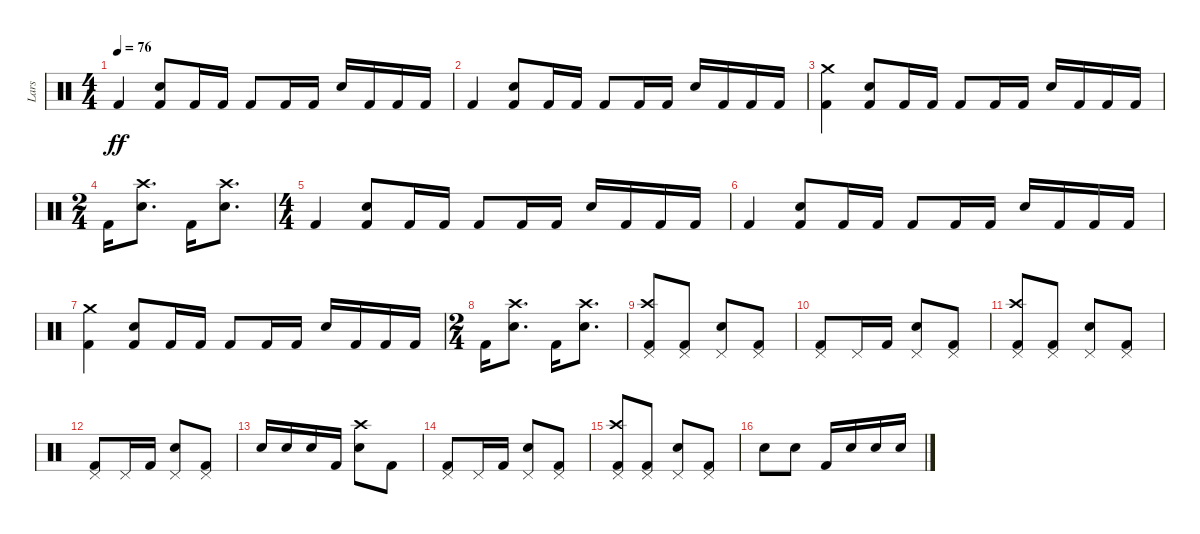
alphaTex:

\track ("Lars" "Lars") {instrument percussion}
\staff {score}
\articulation defaults
\ts (4 4)
\tempo 76
\clef neutral
\ks c "Kick (hit) 2".4{dy ff}
("Snare (hit) 2" "Kick (hit) 2").8 "Kick (hit) 2".16 "Kick (hit) 2".16 "Kick (hit) 2".8 "Kick (hit) 2".16 "Kick (hit) 2".16 "Snare (hit) 2".16 "Kick (hit) 2".16 "Kick (hit) 2".16 "Kick (hit) 2".16 |
"Kick (hit) 2".4 ("Snare (hit) 2" "Kick (hit) 2").8 "Kick (hit) 2".16 "Kick (hit) 2".16 "Kick (hit) 2".8 "Kick (hit) 2".16 "Kick (hit) 2".16 "Snare (hit) 2".16 "Kick (hit) 2".16 "Kick (hit) 2".16 "Kick (hit) 2".16 |
("Crash medium (hit)" "Kick (hit) 2").4 ("Snare (hit) 2" "Kick (hit) 2").8 "Kick (hit) 2".16 "Kick (hit) 2".16 "Kick (hit) 2".8 "Kick (hit) 2".16 "Kick (hit) 2".16 "Snare (hit) 2".16 "Kick (hit) 2".16 "Kick (hit) 2".16 "Kick (hit) 2".16 |
\ts (2 4)
"Kick (hit) 2".16 ("Crash high (hit)" "Snare (hit) 2").8{d} "Kick (hit) 2".16 ("Crash high (hit)" "Snare (hit) 2").8{d} |
\ts (4 4)
"Kick (hit) 2".4 ("Snare (hit) 2" "Kick (hit) 2").8 "Kick (hit) 2".16 "Kick (hit) 2".16 "Kick (hit) 2".8 "Kick (hit) 2".16 "Kick (hit) 2".16 "Snare (hit) 2".16 "Kick (hit) 2".16 "Kick (hit) 2".16 "Kick (hit) 2".16 |
"Kick (hit) 2".4 ("Snare (hit) 2" "Kick (hit) 2").8 "Kick (hit) 2".16 "Kick (hit) 2".16 "Kick (hit) 2".8 "Kick (hit) 2".16 "Kick (hit) 2".16 "Snare (hit) 2".16 "Kick (hit) 2".16 "Kick (hit) 2".16 "Kick (hit) 2".16 |
("Crash medium (hit)" "Kick (hit) 2").4 ("Snare (hit) 2" "Kick (hit) 2").8 "Kick (hit) 2".16 "Kick (hit) 2".16 "Kick (hit) 2".8 "Kick (hit) 2".16 "Kick (hit) 2".16 "Snare (hit) 2".16 "Kick (hit) 2".16 "Kick (hit) 2".16 "Kick (hit) 2".16 |
\ts (2 4)
"Kick (hit) 2".16 ("Crash high (hit)" "Snare (hit) 2").8{d} "Kick (hit) 2".16 ("Crash high (hit)" "Snare (hit) 2").8{d} |
("Pedal Hi-Hat (hit)" "Crash high (hit)" "Kick (hit) 2").8 ("Pedal Hi-Hat (hit)" "Kick (hit) 2").8 ("Pedal Hi-Hat (hit)" "Snare (hit) 2").8 ("Pedal Hi-Hat (hit)" "Kick (hit) 2").8 |
("Pedal Hi-Hat (hit)" "Kick (hit) 2").8 "Pedal Hi-Hat (hit)".16 "Kick (hit) 2".16 ("Pedal Hi-Hat (hit)" "Snare (hit) 2").8 ("Pedal Hi-Hat (hit)" "Kick (hit) 2").8 |
("Pedal Hi-Hat (hit)" "Crash high (hit)" "Kick (hit) 2").8 ("Pedal Hi-Hat (hit)" "Kick (hit) 2").8 ("Pedal Hi-Hat (hit)" "Snare (hit) 2").8 ("Pedal Hi-Hat (hit)" "Kick (hit) 2").8 |
("Pedal Hi-Hat (hit)" "Kick (hit) 2").8 "Pedal Hi-Hat (hit)".16 "Kick (hit) 2".16 ("Pedal Hi-Hat (hit)" "Snare (hit) 2").8 ("Pedal Hi-Hat (hit)" "Kick (hit) 2").8 |
"Snare (hit) 2".16 "Snare (hit) 2".16 "Snare (hit) 2".16 "Kick (hit) 2".16 ("Crash high (hit)" "Snare (hit) 2").8 "Kick (hit) 2".8 |
("Pedal Hi-Hat (hit)" "Kick (hit) 2").8 "Pedal Hi-Hat (hit)".16 "Kick (hit) 2".16 ("Pedal Hi-Hat (hit)" "Snare (hit) 2").8 ("Pedal Hi-Hat (hit)" "Kick (hit) 2").8 |
("Pedal Hi-Hat (hit)" "Crash high (hit)" "Kick (hit) 2").8 ("Pedal Hi-Hat (hit)" "Kick (hit) 2").8 ("Pedal Hi-Hat (hit)" "Snare (hit) 2").8 ("Pedal Hi-Hat (hit)" "Kick (hit) 2").8 |
"Snare (hit) 2".8 "Snare (hit) 2".8 "Kick (hit) 2".16 "Snare (hit) 2".16 "Snare (hit) 2".16 "Snare (hit) 2".16
